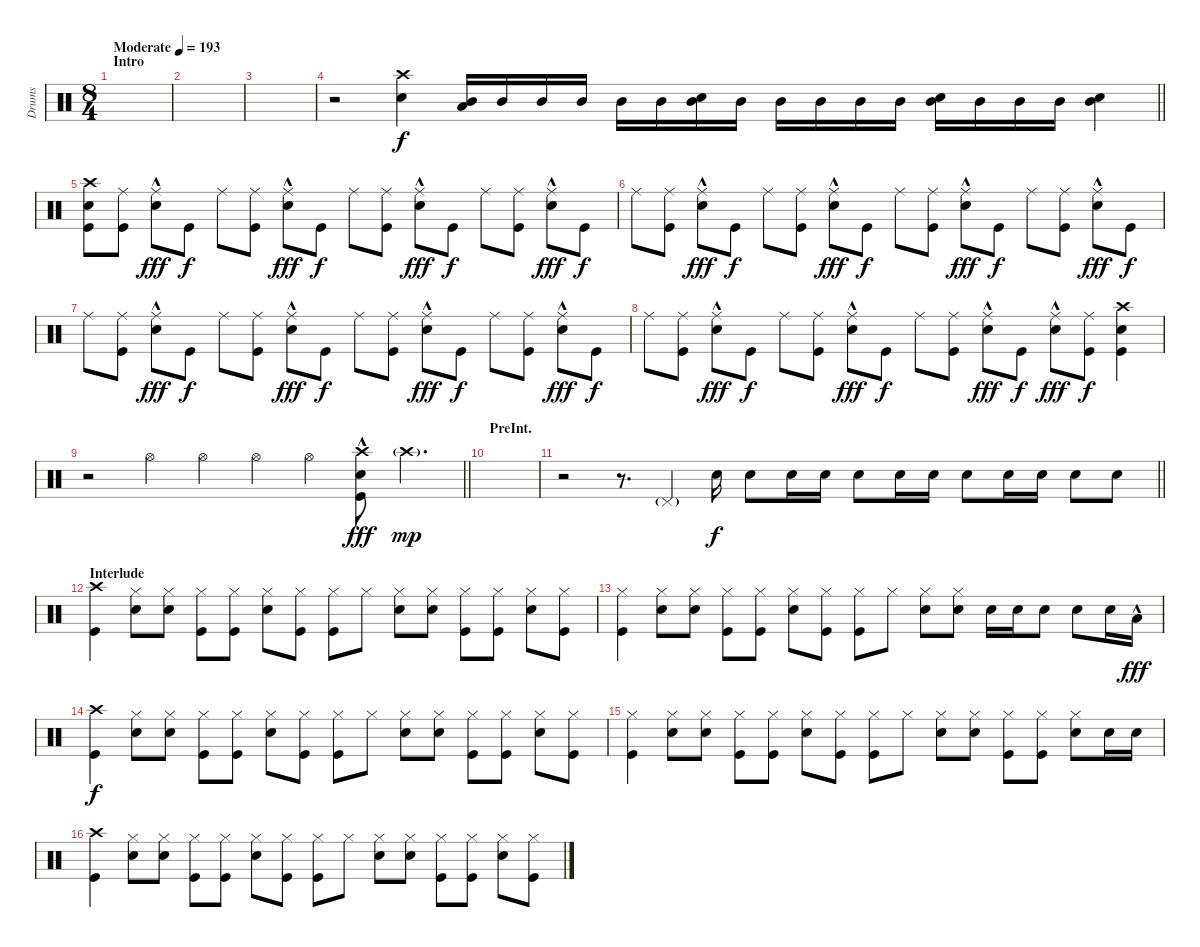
\track ("Drums" "Drums") {instrument percussion}
\staff {score}
\articulation defaults
\ts (8 4)
\section ("" "Intro")
\tempo (193 "Moderate")
\clef neutral
\ks c
|
|
|
\barLineRight lightlight
r.2 ("Crash high (hit)" "Snare (hit) 2").4 ("Mid Tom (hit)" "Low Tom (hit)").16 "Mid Tom (hit)".16 "Mid Tom (hit)".16 "Mid Tom (hit)".16 "Mid Tom (hit)".16 "Mid Tom (hit)".16 ("Snare (hit) 2" "Mid Tom (hit)").16 "Mid Tom (hit)".16 "Mid Tom (hit)".16 "Mid Tom (hit)".16 "Mid Tom (hit)".16 "Mid Tom (hit)".16 ("Snare (hit) 2" "Mid Tom (hit)").16 "Mid Tom (hit)".16 "Mid Tom (hit)".16 "Mid Tom (hit)".16 ("Snare (hit) 2" "Mid Tom (hit)").4 |
\section ("" "")
("Crash high (hit)" "Snare (hit) 2" "Kick (hit)").8 ("Ride (middle)" "Kick (hit)").8 ("Ride (middle)" "Snare (hit) 2"{hac}).8{dy fff} "Kick (hit)".8{dy f} "Ride (middle)".8 ("Ride (middle)" "Kick (hit)").8 ("Ride (middle)" "Snare (hit) 2"{hac}).8{dy fff} "Kick (hit)".8{dy f} "Ride (middle)".8 ("Ride (middle)" "Kick (hit)").8 ("Ride (middle)" "Snare (hit) 2"{hac}).8{dy fff} "Kick (hit)".8{dy f} "Ride (middle)".8 ("Ride (middle)" "Kick (hit)").8 ("Ride (middle)" "Snare (hit) 2"{hac}).8{dy fff} "Kick (hit)".8{dy f} |
"Ride (middle)".8 ("Ride (middle)" "Kick (hit)").8 ("Ride (middle)" "Snare (hit) 2"{hac}).8{dy fff} "Kick (hit)".8{dy f} "Ride (middle)".8 ("Ride (middle)" "Kick (hit)").8 ("Ride (middle)" "Snare (hit) 2"{hac}).8{dy fff} "Kick (hit)".8{dy f} "Ride (middle)".8 ("Ride (middle)" "Kick (hit)").8 ("Ride (middle)" "Snare (hit) 2"{hac}).8{dy fff} "Kick (hit)".8{dy f} "Ride (middle)".8 ("Ride (middle)" "Kick (hit)").8 ("Ride (middle)" "Snare (hit) 2"{hac}).8{dy fff} "Kick (hit)".8{dy f} |
"Ride (middle)".8 ("Ride (middle)" "Kick (hit)").8 ("Ride (middle)" "Snare (hit) 2"{hac}).8{dy fff} "Kick (hit)".8{dy f} "Ride (middle)".8 ("Ride (middle)" "Kick (hit)").8 ("Ride (middle)" "Snare (hit) 2"{hac}).8{dy fff} "Kick (hit)".8{dy f} "Ride (middle)".8 ("Ride (middle)" "Kick (hit)").8 ("Ride (middle)" "Snare (hit) 2"{hac}).8{dy fff} "Kick (hit)".8{dy f} "Ride (middle)".8 ("Ride (middle)" "Kick (hit)").8 ("Ride (middle)" "Snare (hit) 2"{hac}).8{dy fff} "Kick (hit)".8{dy f} |
"Ride (middle)".8 ("Ride (middle)" "Kick (hit)").8 ("Ride (middle)" "Snare (hit) 2"{hac}).8{dy fff} "Kick (hit)".8{dy f} "Ride (middle)".8 ("Ride (middle)" "Kick (hit)").8 ("Ride (middle)" "Snare (hit) 2"{hac}).8{dy fff} "Kick (hit)".8{dy f} "Ride (middle)".8 ("Ride (middle)" "Kick (hit)").8 ("Ride (middle)" "Snare (hit) 2"{hac}).8{dy fff} "Kick (hit)".8{dy f} ("Ride (middle)" "Snare (hit) 2"{hac}).8{dy fff} ("Ride (middle)" "Kick (hit)").8{dy f} ("Crash high (hit)" "Snare (hit) 2" "Kick (hit)").4 |
\barLineRight lightlight
r.2 "Hi-Hat (open)".4 "Hi-Hat (open)".4 "Hi-Hat (open)".4 "Hi-Hat (open)".4 ("Crash high (hit)" "Snare (hit) 2" "Kick (hit)"{hac}).8{dy fff} "Crash high (hit)"{g}.4{d dy mp} |
\section ("" "PreInt.")
|
\barLineRight lightlight
r.2 r.8{d} "Pedal Hi-Hat (hit)"{g}.4 "Snare (hit) 2".16{dy f} "Snare (hit) 2".8 "Snare (hit) 2".16 "Snare (hit) 2".16 "Snare (hit) 2".8 "Snare (hit) 2".16 "Snare (hit) 2".16 "Snare (hit) 2".8 "Snare (hit) 2".16 "Snare (hit) 2".16 "Snare (hit) 2".8 "Snare (hit) 2".8 |
\section ("" "Interlude")
("Crash high (hit)" "Kick (hit)").4 ("Hi-Hat (closed)" "Snare (hit) 2").8 ("Hi-Hat (closed)" "Snare (hit) 2").8 ("Hi-Hat (closed)" "Kick (hit)").8 ("Hi-Hat (closed)" "Kick (hit)").8 ("Hi-Hat (closed)" "Snare (hit) 2").8 ("Hi-Hat (closed)" "Kick (hit)").8 ("Hi-Hat (closed)" "Kick (hit)").8 "Hi-Hat (closed)".8 ("Hi-Hat (closed)" "Snare (hit) 2").8 ("Hi-Hat (closed)" "Snare (hit) 2").8 ("Hi-Hat (closed)" "Kick (hit)").8 ("Hi-Hat (closed)" "Kick (hit)").8 ("Hi-Hat (closed)" "Snare (hit) 2").8 ("Hi-Hat (closed)" "Kick (hit)").8 |
("Hi-Hat (closed)" "Kick (hit)").4 ("Hi-Hat (closed)" "Snare (hit) 2").8 ("Hi-Hat (closed)" "Snare (hit) 2").8 ("Hi-Hat (closed)" "Kick (hit)").8 ("Hi-Hat (closed)" "Kick (hit)").8 ("Hi-Hat (closed)" "Snare (hit) 2").8 ("Hi-Hat (closed)" "Kick (hit)").8 ("Hi-Hat (closed)" "Kick (hit)").8 "Hi-Hat (closed)".8 ("Hi-Hat (closed)" "Snare (hit) 2").8 ("Hi-Hat (closed)" "Snare (hit) 2").8 "Snare (hit) 2".16 "Snare (hit) 2".16 "Snare (hit) 2".8 "Snare (hit) 2".8 "Snare (hit) 2".16 "Low Tom (hit)"{hac}.16{dy fff} |
("Crash high (hit)" "Kick (hit)").4{dy f} ("Hi-Hat (closed)" "Snare (hit) 2").8 ("Hi-Hat (closed)" "Snare (hit) 2").8 ("Hi-Hat (closed)" "Kick (hit)").8 ("Hi-Hat (closed)" "Kick (hit)").8 ("Hi-Hat (closed)" "Snare (hit) 2").8 ("Hi-Hat (closed)" "Kick (hit)").8 ("Hi-Hat (closed)" "Kick (hit)").8 "Hi-Hat (closed)".8 ("Hi-Hat (closed)" "Snare (hit) 2").8 ("Hi-Hat (closed)" "Snare (hit) 2").8 ("Hi-Hat (closed)" "Kick (hit)").8 ("Hi-Hat (closed)" "Kick (hit)").8 ("Hi-Hat (closed)" "Snare (hit) 2").8 ("Hi-Hat (closed)" "Kick (hit)").8 |
("Hi-Hat (closed)" "Kick (hit)").4 ("Hi-Hat (closed)" "Snare (hit) 2").8 ("Hi-Hat (closed)" "Snare (hit) 2").8 ("Hi-Hat (closed)" "Kick (hit)").8 ("Hi-Hat (closed)" "Kick (hit)").8 ("Hi-Hat (closed)" "Snare (hit) 2").8 ("Hi-Hat (closed)" "Kick (hit)").8 ("Hi-Hat (closed)" "Kick (hit)").8 "Hi-Hat (closed)".8 ("Hi-Hat (closed)" "Snare (hit) 2").8 ("Hi-Hat (closed)" "Snare (hit) 2").8 ("Hi-Hat (closed)" "Kick (hit)").8 ("Hi-Hat (closed)" "Kick (hit)").8 ("Hi-Hat (closed)" "Snare (hit) 2").8 "Snare (hit) 2".16 "Snare (hit) 2".16 |
("Crash high (hit)" "Kick (hit)").4 ("Hi-Hat (closed)" "Snare (hit) 2").8 ("Hi-Hat (closed)" "Snare (hit) 2").8 ("Hi-Hat (closed)" "Kick (hit)").8 ("Hi-Hat (closed)" "Kick (hit)").8 ("Hi-Hat (closed)" "Snare (hit) 2").8 ("Hi-Hat (closed)" "Kick (hit)").8 ("Hi-Hat (closed)" "Kick (hit)").8 "Hi-Hat (closed)".8 ("Hi-Hat (closed)" "Snare (hit) 2").8 ("Hi-Hat (closed)" "Snare (hit) 2").8 ("Hi-Hat (closed)" "Kick (hit)").8 ("Hi-Hat (closed)" "Kick (hit)").8 ("Hi-Hat (closed)" "Snare (hit) 2").8 ("Hi-Hat (closed)" "Kick (hit)").8
